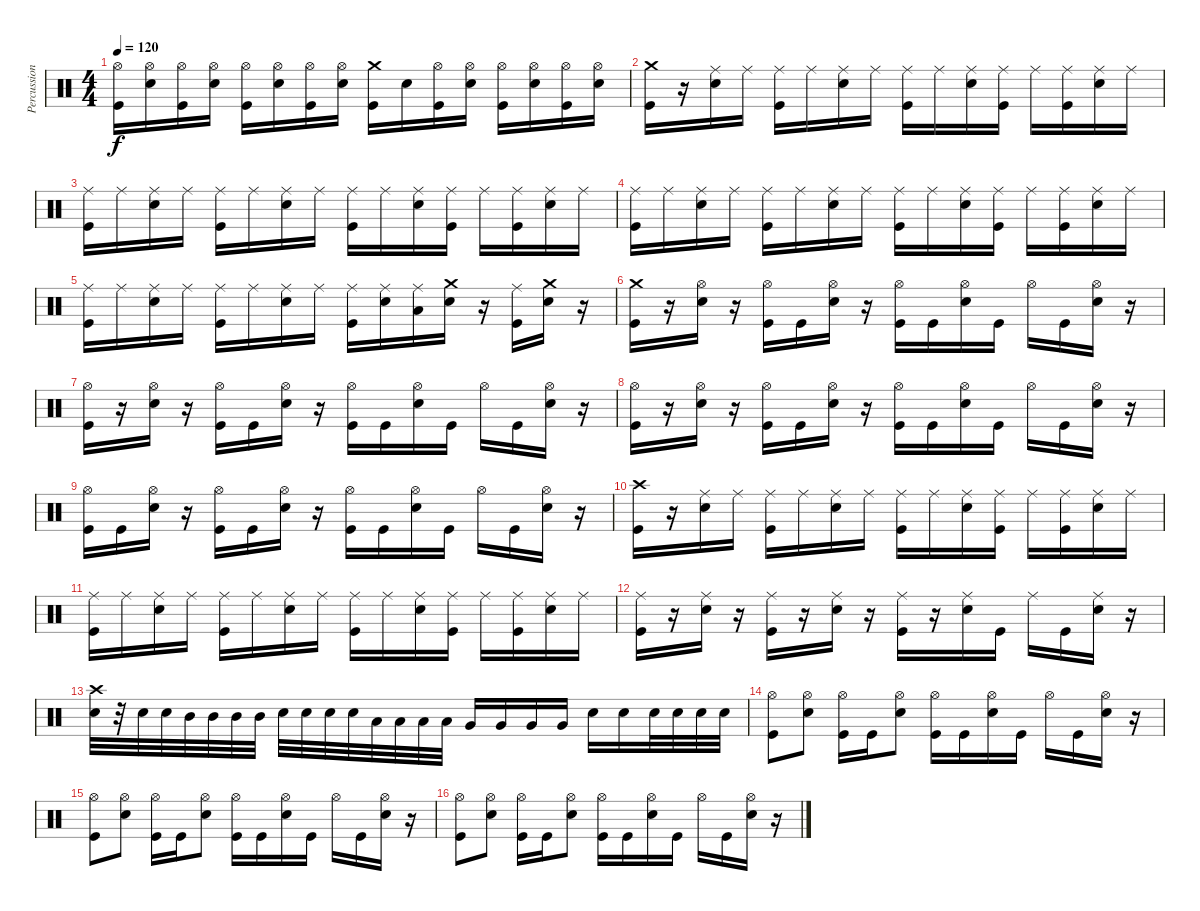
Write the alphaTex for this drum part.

\track ("Percussion" "Percussion") {instrument percussion}
\staff {score}
\articulation defaults
\ts (4 4)
\tempo 120
\clef neutral
\ks c
("Hi-Hat (open)" "Kick (hit)").16{dy f} ("Hi-Hat (open)" "Electric Snare (hit)").16 ("Hi-Hat (open)" "Kick (hit)").16 ("Hi-Hat (open)" "Electric Snare (hit)").16 ("Hi-Hat (open)" "Kick (hit)").16 ("Hi-Hat (open)" "Electric Snare (hit)").16 ("Hi-Hat (open)" "Kick (hit)").16 ("Hi-Hat (open)" "Electric Snare (hit)").16 ("Crash medium (hit)" "Kick (hit)").16 "Electric Snare (hit)".16 ("Hi-Hat (open)" "Kick (hit)").16 ("Hi-Hat (open)" "Electric Snare (hit)").16 ("Hi-Hat (open)" "Kick (hit)").16 ("Hi-Hat (open)" "Electric Snare (hit)").16 ("Hi-Hat (open)" "Kick (hit)").16 ("Hi-Hat (open)" "Electric Snare (hit)").16 |
("Kick (hit)" "Crash medium (hit)").16 r.16 ("Electric Snare (hit)" "Ride (middle)").16 "Ride (middle)".16 ("Kick (hit)" "Ride (middle)").16 "Ride (middle)".16 ("Electric Snare (hit)" "Ride (middle)").16 "Ride (middle)".16 ("Kick (hit)" "Ride (middle)").16 "Ride (middle)".16 ("Electric Snare (hit)" "Ride (middle)").16 ("Kick (hit)" "Ride (middle)").16 "Ride (middle)".16 ("Kick (hit)" "Ride (middle)").16 ("Electric Snare (hit)" "Ride (middle)").16 "Ride (middle)".16 |
("Kick (hit)" "Ride (middle)").16 "Ride (middle)".16 ("Electric Snare (hit)" "Ride (middle)").16 "Ride (middle)".16 ("Kick (hit)" "Ride (middle)").16 "Ride (middle)".16 ("Electric Snare (hit)" "Ride (middle)").16 "Ride (middle)".16 ("Kick (hit)" "Ride (middle)").16 "Ride (middle)".16 ("Electric Snare (hit)" "Ride (middle)").16 ("Kick (hit)" "Ride (middle)").16 "Ride (middle)".16 ("Kick (hit)" "Ride (middle)").16 ("Electric Snare (hit)" "Ride (middle)").16 "Ride (middle)".16 |
("Kick (hit)" "Ride (middle)").16 "Ride (middle)".16 ("Electric Snare (hit)" "Ride (middle)").16 "Ride (middle)".16 ("Kick (hit)" "Ride (middle)").16 "Ride (middle)".16 ("Electric Snare (hit)" "Ride (middle)").16 "Ride (middle)".16 ("Kick (hit)" "Ride (middle)").16 "Ride (middle)".16 ("Electric Snare (hit)" "Ride (middle)").16 ("Kick (hit)" "Ride (middle)").16 "Ride (middle)".16 ("Kick (hit)" "Ride (middle)").16 ("Electric Snare (hit)" "Ride (middle)").16 "Ride (middle)".16 |
("Kick (hit)" "Ride (middle)").16 "Ride (middle)".16 ("Electric Snare (hit)" "Ride (middle)").16 "Ride (middle)".16 ("Kick (hit)" "Ride (middle)").16 "Ride (middle)".16 ("Electric Snare (hit)" "Ride (middle)").16 "Ride (middle)".16 ("Kick (hit)" "Ride (middle)").16 ("Electric Snare (hit)" "Ride (middle)").16 ("Low Tom (hit)" "Ride (middle)").16 ("Electric Snare (hit)" "Crash medium (hit)").16 r.16 ("Kick (hit)" "Ride (middle)").16 ("Electric Snare (hit)" "Crash medium (hit)").16 r.16 |
("Kick (hit)" "Crash medium (hit)").16 r.16 ("Electric Snare (hit)" "Hi-Hat (open)").16 r.16 ("Kick (hit)" "Hi-Hat (open)").16 "Kick (hit)".16 ("Electric Snare (hit)" "Hi-Hat (open)").16 r.16 ("Kick (hit)" "Hi-Hat (open)").16 "Kick (hit)".16 ("Electric Snare (hit)" "Hi-Hat (open)").16 "Kick (hit)".16 "Hi-Hat (open)".16 "Kick (hit)".16 ("Electric Snare (hit)" "Hi-Hat (open)").16 r.16 |
("Kick (hit)" "Hi-Hat (open)").16 r.16 ("Electric Snare (hit)" "Hi-Hat (open)").16 r.16 ("Kick (hit)" "Hi-Hat (open)").16 "Kick (hit)".16 ("Electric Snare (hit)" "Hi-Hat (open)").16 r.16 ("Kick (hit)" "Hi-Hat (open)").16 "Kick (hit)".16 ("Electric Snare (hit)" "Hi-Hat (open)").16 "Kick (hit)".16 "Hi-Hat (open)".16 "Kick (hit)".16 ("Electric Snare (hit)" "Hi-Hat (open)").16 r.16 |
("Kick (hit)" "Hi-Hat (open)").16 r.16 ("Electric Snare (hit)" "Hi-Hat (open)").16 r.16 ("Kick (hit)" "Hi-Hat (open)").16 "Kick (hit)".16 ("Electric Snare (hit)" "Hi-Hat (open)").16 r.16 ("Kick (hit)" "Hi-Hat (open)").16 "Kick (hit)".16 ("Electric Snare (hit)" "Hi-Hat (open)").16 "Kick (hit)".16 "Hi-Hat (open)".16 "Kick (hit)".16 ("Electric Snare (hit)" "Hi-Hat (open)").16 r.16 |
("Kick (hit)" "Hi-Hat (open)").16 "Kick (hit)".16 ("Electric Snare (hit)" "Hi-Hat (open)").16 r.16 ("Kick (hit)" "Hi-Hat (open)").16 "Kick (hit)".16 ("Electric Snare (hit)" "Hi-Hat (open)").16 r.16 ("Kick (hit)" "Hi-Hat (open)").16 "Kick (hit)".16 ("Electric Snare (hit)" "Hi-Hat (open)").16 "Kick (hit)".16 "Hi-Hat (open)".16 "Kick (hit)".16 ("Electric Snare (hit)" "Hi-Hat (open)").16 r.16 |
("Kick (hit)" "Crash high (hit)").16 r.16 ("Electric Snare (hit)" "Ride (middle)").16 "Ride (middle)".16 ("Kick (hit)" "Ride (middle)").16 "Ride (middle)".16 ("Electric Snare (hit)" "Ride (middle)").16 "Ride (middle)".16 ("Kick (hit)" "Ride (middle)").16 "Ride (middle)".16 ("Electric Snare (hit)" "Ride (middle)").16 ("Kick (hit)" "Ride (middle)").16 "Ride (middle)".16 ("Kick (hit)" "Ride (middle)").16 ("Electric Snare (hit)" "Ride (middle)").16 "Ride (middle)".16 |
("Kick (hit)" "Ride (middle)").16 "Ride (middle)".16 ("Electric Snare (hit)" "Ride (middle)").16 "Ride (middle)".16 ("Kick (hit)" "Ride (middle)").16 "Ride (middle)".16 ("Electric Snare (hit)" "Ride (middle)").16 "Ride (middle)".16 ("Kick (hit)" "Ride (middle)").16 "Ride (middle)".16 ("Electric Snare (hit)" "Ride (middle)").16 ("Kick (hit)" "Ride (middle)").16 "Ride (middle)".16 ("Kick (hit)" "Ride (middle)").16 ("Electric Snare (hit)" "Ride (middle)").16 "Ride (middle)".16 |
("Kick (hit)" "Ride (middle)").16 r.16 ("Electric Snare (hit)" "Ride (middle)").16 r.16 ("Kick (hit)" "Ride (middle)").16 r.16 ("Electric Snare (hit)" "Ride (middle)").16 r.16 ("Kick (hit)" "Ride (middle)").16 r.16 ("Electric Snare (hit)" "Ride (middle)").16 "Kick (hit)".16 "Ride (middle)".16 "Kick (hit)".16 ("Electric Snare (hit)" "Ride (middle)").16 r.16 |
("Crash high (hit)" "Electric Snare (hit)").32 r.32 "Electric Snare (hit)".32 "Electric Snare (hit)".32 "Mid Tom (hit)".32 "Mid Tom (hit)".32 "Mid Tom (hit)".32 "Mid Tom (hit)".32 "Electric Snare (hit)".32 "Electric Snare (hit)".32 "Electric Snare (hit)".32 "Electric Snare (hit)".32 "Low Tom (hit)".32 "Low Tom (hit)".32 "Low Tom (hit)".32 "Low Tom (hit)".32 "Very Low Tom (hit)".16 "Very Low Tom (hit)".16 "Very Low Tom (hit)".16 "Very Low Tom (hit)".16 "Electric Snare (hit)".16 "Electric Snare (hit)".16 "Electric Snare (hit)".32 "Electric Snare (hit)".32 "Electric Snare (hit)".32 "Electric Snare (hit)".32 |
("Kick (hit)" "Hi-Hat (open)").8 ("Electric Snare (hit)" "Hi-Hat (open)").8 ("Hi-Hat (open)" "Kick (hit)").16 "Kick (hit)".16 ("Hi-Hat (open)" "Electric Snare (hit)").8 ("Hi-Hat (open)" "Kick (hit)").16 "Kick (hit)".16 ("Hi-Hat (open)" "Electric Snare (hit)").16 "Kick (hit)".16 "Hi-Hat (open)".16 "Kick (hit)".16 ("Hi-Hat (open)" "Electric Snare (hit)").16 r.16 |
("Kick (hit)" "Hi-Hat (open)").8 ("Electric Snare (hit)" "Hi-Hat (open)").8 ("Hi-Hat (open)" "Kick (hit)").16 "Kick (hit)".16 ("Hi-Hat (open)" "Electric Snare (hit)").8 ("Hi-Hat (open)" "Kick (hit)").16 "Kick (hit)".16 ("Hi-Hat (open)" "Electric Snare (hit)").16 "Kick (hit)".16 "Hi-Hat (open)".16 "Kick (hit)".16 ("Hi-Hat (open)" "Electric Snare (hit)").16 r.16 |
("Kick (hit)" "Hi-Hat (open)").8 ("Electric Snare (hit)" "Hi-Hat (open)").8 ("Hi-Hat (open)" "Kick (hit)").16 "Kick (hit)".16 ("Hi-Hat (open)" "Electric Snare (hit)").8 ("Hi-Hat (open)" "Kick (hit)").16 "Kick (hit)".16 ("Hi-Hat (open)" "Electric Snare (hit)").16 "Kick (hit)".16 "Hi-Hat (open)".16 "Kick (hit)".16 ("Hi-Hat (open)" "Electric Snare (hit)").16 r.16
